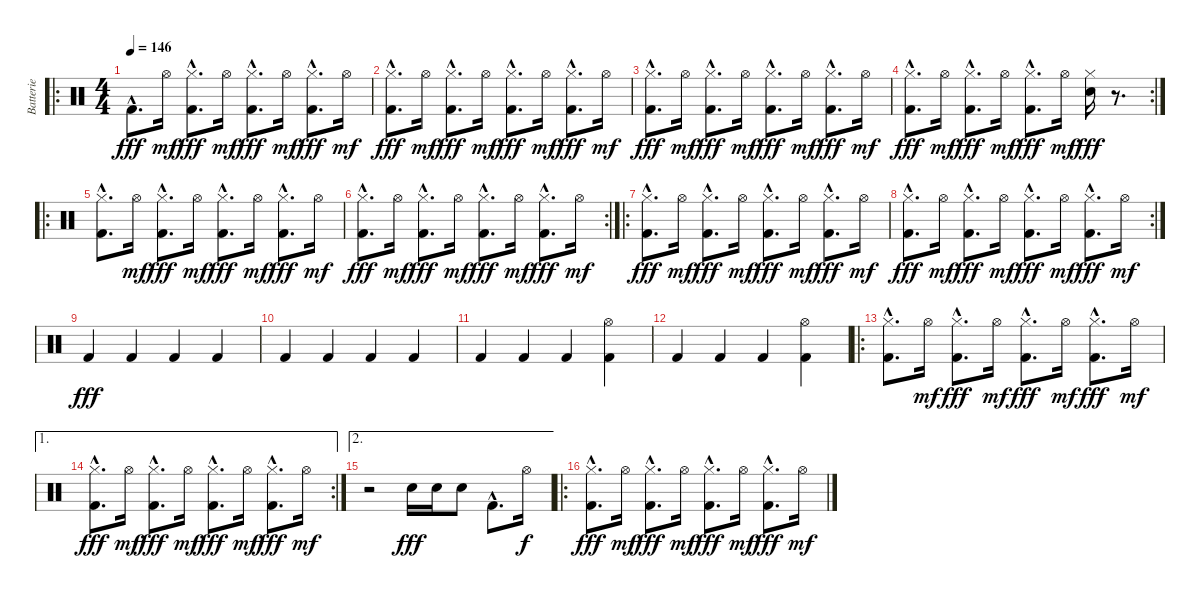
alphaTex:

\track ("Batterie" "Batterie") {instrument percussion}
\staff {score}
\articulation defaults
\ro
\ts (4 4)
\tempo 146
\clef neutral
\ks c "Kick (hit) 2"{hac}.8{d dy fff} "Hi-Hat (open)".16{dy mf}
("Hi-Hat (closed)"{hac} "Kick (hit) 2"{hac}).8{d dy fff} "Hi-Hat (open)".16{dy mf} ("Hi-Hat (closed)"{hac} "Kick (hit) 2"{hac}).8{d dy fff} "Hi-Hat (open)".16{dy mf} ("Hi-Hat (closed)"{hac} "Kick (hit) 2"{hac}).8{d dy fff} "Hi-Hat (open)".16{dy mf} |
("Hi-Hat (closed)"{hac} "Kick (hit) 2"{hac}).8{d dy fff} "Hi-Hat (open)".16{dy mf} ("Hi-Hat (closed)"{hac} "Kick (hit) 2"{hac}).8{d dy fff} "Hi-Hat (open)".16{dy mf} ("Hi-Hat (closed)"{hac} "Kick (hit) 2"{hac}).8{d dy fff} "Hi-Hat (open)".16{dy mf} ("Hi-Hat (closed)"{hac} "Kick (hit) 2"{hac}).8{d dy fff} "Hi-Hat (open)".16{dy mf} |
("Hi-Hat (closed)"{hac} "Kick (hit) 2"{hac}).8{d dy fff} "Hi-Hat (open)".16{dy mf} ("Hi-Hat (closed)"{hac} "Kick (hit) 2"{hac}).8{d dy fff} "Hi-Hat (open)".16{dy mf} ("Hi-Hat (closed)"{hac} "Kick (hit) 2"{hac}).8{d dy fff} "Hi-Hat (open)".16{dy mf} ("Hi-Hat (closed)"{hac} "Kick (hit) 2"{hac}).8{d dy fff} "Hi-Hat (open)".16{dy mf} |
\rc 2
("Hi-Hat (closed)"{hac} "Kick (hit) 2"{hac}).8{d dy fff} "Hi-Hat (open)".16{dy mf} ("Hi-Hat (closed)"{hac} "Kick (hit) 2"{hac}).8{d dy fff} "Hi-Hat (open)".16{dy mf} ("Hi-Hat (closed)"{hac} "Kick (hit) 2"{hac}).8{d dy fff} "Hi-Hat (open)".16{dy mf} ("Hi-Hat (closed)" "Electric Snare (hit)").16{dy fff} r.8{d} |
\ro
("Hi-Hat (closed)"{hac} "Kick (hit) 2"{hac}).8{d} "Hi-Hat (open)".16{dy mf} ("Hi-Hat (closed)"{hac} "Kick (hit) 2"{hac}).8{d dy fff} "Hi-Hat (open)".16{dy mf} ("Hi-Hat (closed)"{hac} "Kick (hit) 2"{hac}).8{d dy fff} "Hi-Hat (open)".16{dy mf} ("Hi-Hat (closed)"{hac} "Kick (hit) 2"{hac}).8{d dy fff} "Hi-Hat (open)".16{dy mf} |
\rc 2
("Hi-Hat (closed)"{hac} "Kick (hit) 2"{hac}).8{d dy fff} "Hi-Hat (open)".16{dy mf} ("Hi-Hat (closed)"{hac} "Kick (hit) 2"{hac}).8{d dy fff} "Hi-Hat (open)".16{dy mf} ("Hi-Hat (closed)"{hac} "Kick (hit) 2"{hac}).8{d dy fff} "Hi-Hat (open)".16{dy mf} ("Hi-Hat (closed)"{hac} "Kick (hit) 2"{hac}).8{d dy fff} "Hi-Hat (open)".16{dy mf} |
\ro
("Hi-Hat (closed)"{hac} "Kick (hit) 2"{hac}).8{d dy fff} "Hi-Hat (open)".16{dy mf} ("Hi-Hat (closed)"{hac} "Kick (hit) 2"{hac}).8{d dy fff} "Hi-Hat (open)".16{dy mf} ("Hi-Hat (closed)"{hac} "Kick (hit) 2"{hac}).8{d dy fff} "Hi-Hat (open)".16{dy mf} ("Hi-Hat (closed)"{hac} "Kick (hit) 2"{hac}).8{d dy fff} "Hi-Hat (open)".16{dy mf} |
\rc 2
("Hi-Hat (closed)"{hac} "Kick (hit) 2"{hac}).8{d dy fff} "Hi-Hat (open)".16{dy mf} ("Hi-Hat (closed)"{hac} "Kick (hit) 2"{hac}).8{d dy fff} "Hi-Hat (open)".16{dy mf} ("Hi-Hat (closed)"{hac} "Kick (hit) 2"{hac}).8{d dy fff} "Hi-Hat (open)".16{dy mf} ("Hi-Hat (closed)"{hac} "Kick (hit) 2"{hac}).8{d dy fff} "Hi-Hat (open)".16{dy mf} |
"Kick (hit) 2".4{dy fff} "Kick (hit) 2".4 "Kick (hit) 2".4 "Kick (hit) 2".4 |
"Kick (hit) 2".4 "Kick (hit) 2".4 "Kick (hit) 2".4 "Kick (hit) 2".4 |
"Kick (hit) 2".4 "Kick (hit) 2".4 "Kick (hit) 2".4 ("Hi-Hat (open)" "Kick (hit) 2").4 |
"Kick (hit) 2".4 "Kick (hit) 2".4 "Kick (hit) 2".4 ("Hi-Hat (open)" "Kick (hit) 2").4 |
\ro
("Hi-Hat (closed)"{hac} "Kick (hit) 2"{hac}).8{d} "Hi-Hat (open)".16{dy mf} ("Hi-Hat (closed)"{hac} "Kick (hit) 2"{hac}).8{d dy fff} "Hi-Hat (open)".16{dy mf} ("Hi-Hat (closed)"{hac} "Kick (hit) 2"{hac}).8{d dy fff} "Hi-Hat (open)".16{dy mf} ("Hi-Hat (closed)"{hac} "Kick (hit) 2"{hac}).8{d dy fff} "Hi-Hat (open)".16{dy mf} |
\ae 1
\rc 2
("Hi-Hat (closed)"{hac} "Kick (hit) 2"{hac}).8{d dy fff} "Hi-Hat (open)".16{dy mf} ("Hi-Hat (closed)"{hac} "Kick (hit) 2"{hac}).8{d dy fff} "Hi-Hat (open)".16{dy mf} ("Hi-Hat (closed)"{hac} "Kick (hit) 2"{hac}).8{d dy fff} "Hi-Hat (open)".16{dy mf} ("Hi-Hat (closed)"{hac} "Kick (hit) 2"{hac}).8{d dy fff} "Hi-Hat (open)".16{dy mf} |
\ae 2
r.2 "Electric Snare (hit)".16{dy fff} "Electric Snare (hit)".16 "Electric Snare (hit)".8 "Kick (hit) 2"{hac}.8{d} "Hi-Hat (open)".16{dy f} |
\ro
("Hi-Hat (closed)"{hac} "Kick (hit) 2"{hac}).8{d dy fff} "Hi-Hat (open)".16{dy mf} ("Hi-Hat (closed)"{hac} "Kick (hit) 2"{hac}).8{d dy fff} "Hi-Hat (open)".16{dy mf} ("Hi-Hat (closed)"{hac} "Kick (hit) 2"{hac}).8{d dy fff} "Hi-Hat (open)".16{dy mf} ("Hi-Hat (closed)"{hac} "Kick (hit) 2"{hac}).8{d dy fff} "Hi-Hat (open)".16{dy mf}
